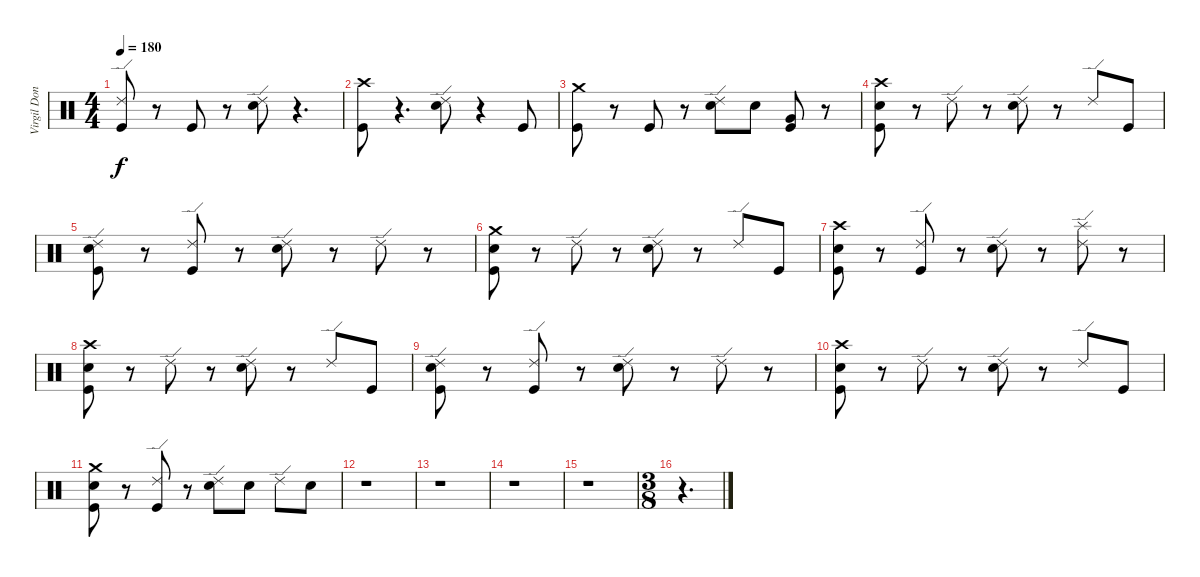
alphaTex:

\track ("Virgil Donati" "Virgil Don") {instrument percussion}
\staff {score}
\articulation defaults
\ts (4 4)
\tempo 180
\clef neutral
\ks c
("Ride (edge) 2" "Kick (hit)").8{dy f} r.8 "Kick (hit)".8 r.8 ("Ride (edge) 2" "Electric Snare (hit)").8 r.4{d} |
("Crash high (hit)" "Kick (hit)").8 r.4{d} ("Ride (edge) 2" "Electric Snare (hit)").8 r.4 "Kick (hit)".8 |
("Crash medium (hit)" "Kick (hit)").8 r.8 "Kick (hit)".8 r.8 ("Ride (edge) 2" "Electric Snare (hit)").8 "Electric Snare (hit)".8 ("Very Low Tom (hit)" "Kick (hit)").8 r.8 |
("Crash high (hit)" "Electric Snare (hit)" "Kick (hit)").8 r.8 "Ride (edge) 2".8 r.8 ("Ride (edge) 2" "Electric Snare (hit)").8 r.8 "Ride (edge) 2".8 "Kick (hit)".8 |
("Ride (edge) 2" "Electric Snare (hit)" "Kick (hit)").8 r.8 ("Ride (edge) 2" "Kick (hit)").8 r.8 ("Ride (edge) 2" "Electric Snare (hit)").8 r.8 "Ride (edge) 2".8 r.8 |
("Crash medium (hit)" "Electric Snare (hit)" "Kick (hit)").8 r.8 "Ride (edge) 2".8 r.8 ("Ride (edge) 2" "Electric Snare (hit)").8 r.8 "Ride (edge) 2".8 "Kick (hit)".8 |
("Crash high (hit)" "Electric Snare (hit)" "Kick (hit)").8 r.8 ("Ride (edge) 2" "Kick (hit)").8 r.8 ("Ride (edge) 2" "Electric Snare (hit)").8 r.8 ("Ride (edge) 2" "Splash (hit)").8 r.8 |
("Crash high (hit)" "Electric Snare (hit)" "Kick (hit)").8 r.8 "Ride (edge) 2".8 r.8 ("Ride (edge) 2" "Electric Snare (hit)").8 r.8 "Ride (edge) 2".8 "Kick (hit)".8 |
("Ride (edge) 2" "Electric Snare (hit)" "Kick (hit)").8 r.8 ("Ride (edge) 2" "Kick (hit)").8 r.8 ("Ride (edge) 2" "Electric Snare (hit)").8 r.8 "Ride (edge) 2".8 r.8 |
("Crash high (hit)" "Electric Snare (hit)" "Kick (hit)").8 r.8 "Ride (edge) 2".8 r.8 ("Ride (edge) 2" "Electric Snare (hit)").8 r.8 "Ride (edge) 2".8 "Kick (hit)".8 |
("Crash medium (hit)" "Electric Snare (hit)" "Kick (hit)").8 r.8 ("Ride (edge) 2" "Kick (hit)").8 r.8 ("Ride (edge) 2" "Electric Snare (hit)").8 "Electric Snare (hit)".8 "Ride (edge) 2".8 "Electric Snare (hit)".8 |
r.1 |
r.1 |
r.1 |
r.1 |
\ts (3 8)
r.4{d}
